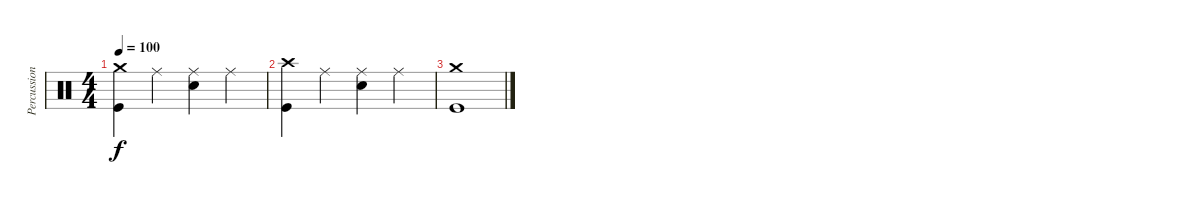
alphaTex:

\track ("Percussioni" "Percussion") {instrument percussion}
\staff {score}
\articulation defaults
\ts (4 4)
\tempo 100
\clef neutral
\ks c
("Crash medium (hit)" "Kick (hit)").4{dy f} "Ride (middle)".4 ("Ride (middle)" "Electric Snare (hit)").4 "Ride (middle)".4 |
("Crash high (hit)" "Kick (hit)").4 "Ride (middle)".4 ("Ride (middle)" "Electric Snare (hit)").4 "Ride (middle)".4 |
("Crash medium (hit)" "Kick (hit)").1
